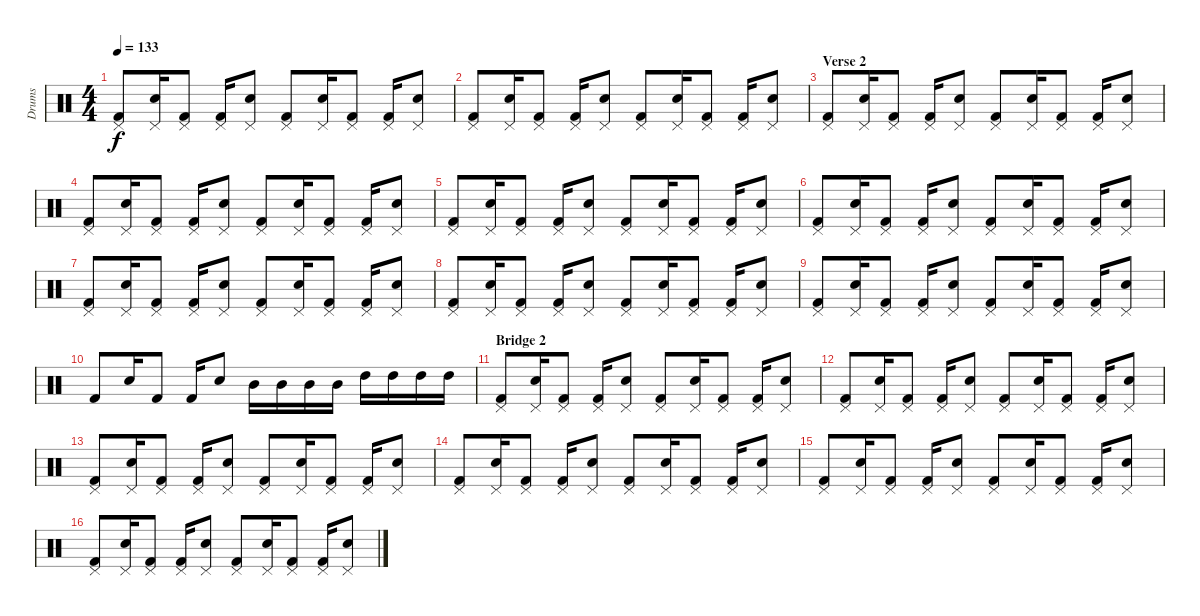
\track ("Drums" "Drums") {instrument percussion}
\staff {score}
\articulation defaults
\ts (4 4)
\tempo 133
\clef neutral
\ks c
("Pedal Hi-Hat (hit)" "Kick (hit) 2").8{dy f} ("Pedal Hi-Hat (hit)" "Electric Snare (hit)").16 ("Pedal Hi-Hat (hit)" "Kick (hit) 2").8 ("Pedal Hi-Hat (hit)" "Kick (hit) 2").16 ("Pedal Hi-Hat (hit)" "Electric Snare (hit)").8 ("Pedal Hi-Hat (hit)" "Kick (hit) 2").8 ("Pedal Hi-Hat (hit)" "Electric Snare (hit)").16 ("Pedal Hi-Hat (hit)" "Kick (hit) 2").8 ("Pedal Hi-Hat (hit)" "Kick (hit) 2").16 ("Pedal Hi-Hat (hit)" "Electric Snare (hit)").8 |
("Pedal Hi-Hat (hit)" "Kick (hit) 2").8 ("Pedal Hi-Hat (hit)" "Electric Snare (hit)").16 ("Pedal Hi-Hat (hit)" "Kick (hit) 2").8 ("Pedal Hi-Hat (hit)" "Kick (hit) 2").16 ("Pedal Hi-Hat (hit)" "Electric Snare (hit)").8 ("Pedal Hi-Hat (hit)" "Kick (hit) 2").8 ("Pedal Hi-Hat (hit)" "Electric Snare (hit)").16 ("Pedal Hi-Hat (hit)" "Kick (hit) 2").8 ("Pedal Hi-Hat (hit)" "Kick (hit) 2").16 ("Pedal Hi-Hat (hit)" "Electric Snare (hit)").8 |
\section ("" "Verse 2 ")
("Pedal Hi-Hat (hit)" "Kick (hit) 2").8 ("Pedal Hi-Hat (hit)" "Electric Snare (hit)").16 ("Pedal Hi-Hat (hit)" "Kick (hit) 2").8 ("Pedal Hi-Hat (hit)" "Kick (hit) 2").16 ("Pedal Hi-Hat (hit)" "Electric Snare (hit)").8 ("Pedal Hi-Hat (hit)" "Kick (hit) 2").8 ("Pedal Hi-Hat (hit)" "Electric Snare (hit)").16 ("Pedal Hi-Hat (hit)" "Kick (hit) 2").8 ("Pedal Hi-Hat (hit)" "Kick (hit) 2").16 ("Pedal Hi-Hat (hit)" "Electric Snare (hit)").8 |
("Pedal Hi-Hat (hit)" "Kick (hit) 2").8 ("Pedal Hi-Hat (hit)" "Electric Snare (hit)").16 ("Pedal Hi-Hat (hit)" "Kick (hit) 2").8 ("Pedal Hi-Hat (hit)" "Kick (hit) 2").16 ("Pedal Hi-Hat (hit)" "Electric Snare (hit)").8 ("Pedal Hi-Hat (hit)" "Kick (hit) 2").8 ("Pedal Hi-Hat (hit)" "Electric Snare (hit)").16 ("Pedal Hi-Hat (hit)" "Kick (hit) 2").8 ("Pedal Hi-Hat (hit)" "Kick (hit) 2").16 ("Pedal Hi-Hat (hit)" "Electric Snare (hit)").8 |
("Pedal Hi-Hat (hit)" "Kick (hit) 2").8 ("Pedal Hi-Hat (hit)" "Electric Snare (hit)").16 ("Pedal Hi-Hat (hit)" "Kick (hit) 2").8 ("Pedal Hi-Hat (hit)" "Kick (hit) 2").16 ("Pedal Hi-Hat (hit)" "Electric Snare (hit)").8 ("Pedal Hi-Hat (hit)" "Kick (hit) 2").8 ("Pedal Hi-Hat (hit)" "Electric Snare (hit)").16 ("Pedal Hi-Hat (hit)" "Kick (hit) 2").8 ("Pedal Hi-Hat (hit)" "Kick (hit) 2").16 ("Pedal Hi-Hat (hit)" "Electric Snare (hit)").8 |
("Pedal Hi-Hat (hit)" "Kick (hit) 2").8 ("Pedal Hi-Hat (hit)" "Electric Snare (hit)").16 ("Pedal Hi-Hat (hit)" "Kick (hit) 2").8 ("Pedal Hi-Hat (hit)" "Kick (hit) 2").16 ("Pedal Hi-Hat (hit)" "Electric Snare (hit)").8 ("Pedal Hi-Hat (hit)" "Kick (hit) 2").8 ("Pedal Hi-Hat (hit)" "Electric Snare (hit)").16 ("Pedal Hi-Hat (hit)" "Kick (hit) 2").8 ("Pedal Hi-Hat (hit)" "Kick (hit) 2").16 ("Pedal Hi-Hat (hit)" "Electric Snare (hit)").8 |
("Pedal Hi-Hat (hit)" "Kick (hit) 2").8 ("Pedal Hi-Hat (hit)" "Electric Snare (hit)").16 ("Pedal Hi-Hat (hit)" "Kick (hit) 2").8 ("Pedal Hi-Hat (hit)" "Kick (hit) 2").16 ("Pedal Hi-Hat (hit)" "Electric Snare (hit)").8 ("Pedal Hi-Hat (hit)" "Kick (hit) 2").8 ("Pedal Hi-Hat (hit)" "Electric Snare (hit)").16 ("Pedal Hi-Hat (hit)" "Kick (hit) 2").8 ("Pedal Hi-Hat (hit)" "Kick (hit) 2").16 ("Pedal Hi-Hat (hit)" "Electric Snare (hit)").8 |
("Pedal Hi-Hat (hit)" "Kick (hit) 2").8 ("Pedal Hi-Hat (hit)" "Electric Snare (hit)").16 ("Pedal Hi-Hat (hit)" "Kick (hit) 2").8 ("Pedal Hi-Hat (hit)" "Kick (hit) 2").16 ("Pedal Hi-Hat (hit)" "Electric Snare (hit)").8 ("Pedal Hi-Hat (hit)" "Kick (hit) 2").8 ("Pedal Hi-Hat (hit)" "Electric Snare (hit)").16 ("Pedal Hi-Hat (hit)" "Kick (hit) 2").8 ("Pedal Hi-Hat (hit)" "Kick (hit) 2").16 ("Pedal Hi-Hat (hit)" "Electric Snare (hit)").8 |
("Pedal Hi-Hat (hit)" "Kick (hit) 2").8 ("Pedal Hi-Hat (hit)" "Electric Snare (hit)").16 ("Pedal Hi-Hat (hit)" "Kick (hit) 2").8 ("Pedal Hi-Hat (hit)" "Kick (hit) 2").16 ("Pedal Hi-Hat (hit)" "Electric Snare (hit)").8 ("Pedal Hi-Hat (hit)" "Kick (hit) 2").8 ("Pedal Hi-Hat (hit)" "Electric Snare (hit)").16 ("Pedal Hi-Hat (hit)" "Kick (hit) 2").8 ("Pedal Hi-Hat (hit)" "Kick (hit) 2").16 ("Pedal Hi-Hat (hit)" "Electric Snare (hit)").8 |
"Kick (hit) 2".8 "Electric Snare (hit)".16 "Kick (hit) 2".8 "Kick (hit) 2".16 "Electric Snare (hit)".8 "Mid Tom (hit)".16 "Mid Tom (hit)".16 "Mid Tom (hit)".16 "Mid Tom (hit)".16 "High Tom (hit)".16 "High Tom (hit)".16 "High Tom (hit)".16 "High Tom (hit)".16 |
\section ("" "Bridge 2 ")
("Pedal Hi-Hat (hit)" "Kick (hit) 2").8 ("Pedal Hi-Hat (hit)" "Electric Snare (hit)").16 ("Pedal Hi-Hat (hit)" "Kick (hit) 2").8 ("Pedal Hi-Hat (hit)" "Kick (hit) 2").16 ("Pedal Hi-Hat (hit)" "Electric Snare (hit)").8 ("Pedal Hi-Hat (hit)" "Kick (hit) 2").8 ("Pedal Hi-Hat (hit)" "Electric Snare (hit)").16 ("Pedal Hi-Hat (hit)" "Kick (hit) 2").8 ("Pedal Hi-Hat (hit)" "Kick (hit) 2").16 ("Pedal Hi-Hat (hit)" "Electric Snare (hit)").8 |
("Pedal Hi-Hat (hit)" "Kick (hit) 2").8 ("Pedal Hi-Hat (hit)" "Electric Snare (hit)").16 ("Pedal Hi-Hat (hit)" "Kick (hit) 2").8 ("Pedal Hi-Hat (hit)" "Kick (hit) 2").16 ("Pedal Hi-Hat (hit)" "Electric Snare (hit)").8 ("Pedal Hi-Hat (hit)" "Kick (hit) 2").8 ("Pedal Hi-Hat (hit)" "Electric Snare (hit)").16 ("Pedal Hi-Hat (hit)" "Kick (hit) 2").8 ("Pedal Hi-Hat (hit)" "Kick (hit) 2").16 ("Pedal Hi-Hat (hit)" "Electric Snare (hit)").8 |
("Pedal Hi-Hat (hit)" "Kick (hit) 2").8 ("Pedal Hi-Hat (hit)" "Electric Snare (hit)").16 ("Pedal Hi-Hat (hit)" "Kick (hit) 2").8 ("Pedal Hi-Hat (hit)" "Kick (hit) 2").16 ("Pedal Hi-Hat (hit)" "Electric Snare (hit)").8 ("Pedal Hi-Hat (hit)" "Kick (hit) 2").8 ("Pedal Hi-Hat (hit)" "Electric Snare (hit)").16 ("Pedal Hi-Hat (hit)" "Kick (hit) 2").8 ("Pedal Hi-Hat (hit)" "Kick (hit) 2").16 ("Pedal Hi-Hat (hit)" "Electric Snare (hit)").8 |
("Pedal Hi-Hat (hit)" "Kick (hit) 2").8 ("Pedal Hi-Hat (hit)" "Electric Snare (hit)").16 ("Pedal Hi-Hat (hit)" "Kick (hit) 2").8 ("Pedal Hi-Hat (hit)" "Kick (hit) 2").16 ("Pedal Hi-Hat (hit)" "Electric Snare (hit)").8 ("Pedal Hi-Hat (hit)" "Kick (hit) 2").8 ("Pedal Hi-Hat (hit)" "Electric Snare (hit)").16 ("Pedal Hi-Hat (hit)" "Kick (hit) 2").8 ("Pedal Hi-Hat (hit)" "Kick (hit) 2").16 ("Pedal Hi-Hat (hit)" "Electric Snare (hit)").8 |
("Pedal Hi-Hat (hit)" "Kick (hit) 2").8 ("Pedal Hi-Hat (hit)" "Electric Snare (hit)").16 ("Pedal Hi-Hat (hit)" "Kick (hit) 2").8 ("Pedal Hi-Hat (hit)" "Kick (hit) 2").16 ("Pedal Hi-Hat (hit)" "Electric Snare (hit)").8 ("Pedal Hi-Hat (hit)" "Kick (hit) 2").8 ("Pedal Hi-Hat (hit)" "Electric Snare (hit)").16 ("Pedal Hi-Hat (hit)" "Kick (hit) 2").8 ("Pedal Hi-Hat (hit)" "Kick (hit) 2").16 ("Pedal Hi-Hat (hit)" "Electric Snare (hit)").8 |
("Pedal Hi-Hat (hit)" "Kick (hit) 2").8 ("Pedal Hi-Hat (hit)" "Electric Snare (hit)").16 ("Pedal Hi-Hat (hit)" "Kick (hit) 2").8 ("Pedal Hi-Hat (hit)" "Kick (hit) 2").16 ("Pedal Hi-Hat (hit)" "Electric Snare (hit)").8 ("Pedal Hi-Hat (hit)" "Kick (hit) 2").8 ("Pedal Hi-Hat (hit)" "Electric Snare (hit)").16 ("Pedal Hi-Hat (hit)" "Kick (hit) 2").8 ("Pedal Hi-Hat (hit)" "Kick (hit) 2").16 ("Pedal Hi-Hat (hit)" "Electric Snare (hit)").8
